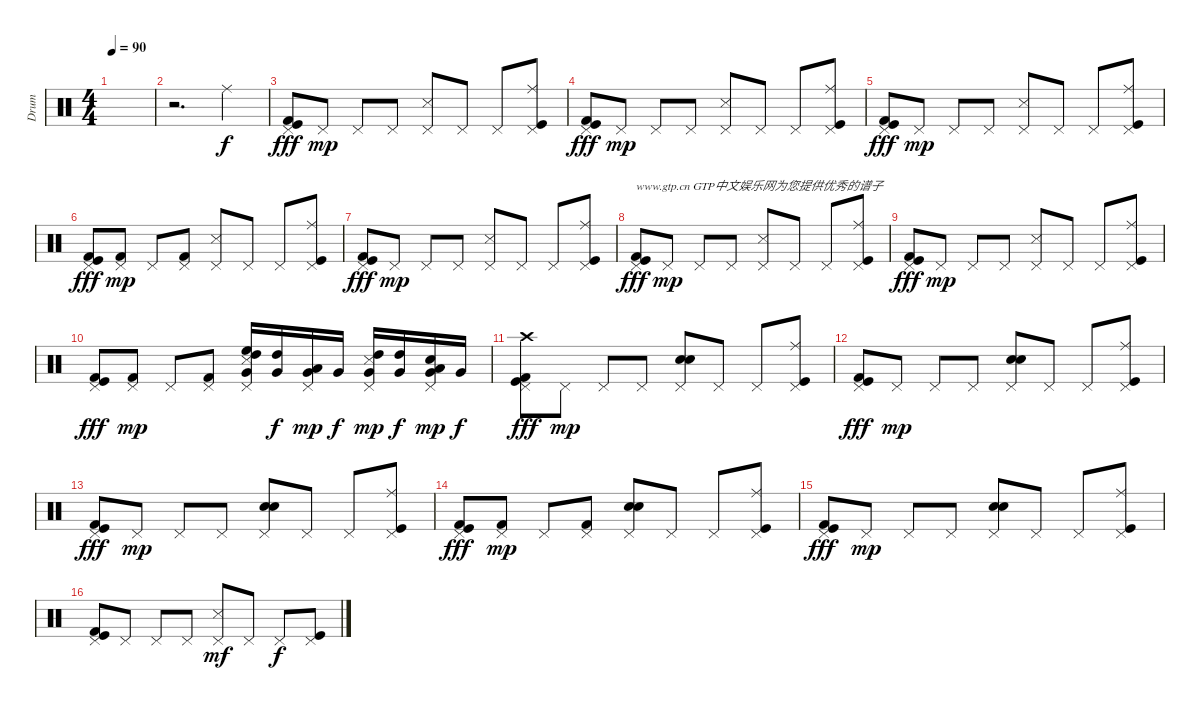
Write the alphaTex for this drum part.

\track ("Drum" "Drum") {instrument percussion}
\staff {score}
\articulation defaults
\ts (4 4)
\tempo 90
\clef neutral
\ks c
|
r.2{d} "Ride (middle)".4 |
("Kick (hit)" "Pedal Hi-Hat (hit)" "Kick (hit) 2").8{dy fff} "Pedal Hi-Hat (hit)".8{dy mp} "Pedal Hi-Hat (hit)".8 "Pedal Hi-Hat (hit)".8 ("Snare (side stick) 3" "Pedal Hi-Hat (hit)").8 "Pedal Hi-Hat (hit)".8 "Pedal Hi-Hat (hit)".8 ("Ride (middle)" "Pedal Hi-Hat (hit)" "Kick (hit)").8 |
("Kick (hit)" "Pedal Hi-Hat (hit)" "Kick (hit) 2").8{dy fff} "Pedal Hi-Hat (hit)".8{dy mp} "Pedal Hi-Hat (hit)".8 "Pedal Hi-Hat (hit)".8 ("Snare (side stick) 3" "Pedal Hi-Hat (hit)").8 "Pedal Hi-Hat (hit)".8 "Pedal Hi-Hat (hit)".8 ("Ride (middle)" "Pedal Hi-Hat (hit)" "Kick (hit)").8 |
("Kick (hit)" "Pedal Hi-Hat (hit)" "Kick (hit) 2").8{dy fff} "Pedal Hi-Hat (hit)".8{dy mp} "Pedal Hi-Hat (hit)".8 "Pedal Hi-Hat (hit)".8 ("Snare (side stick) 3" "Pedal Hi-Hat (hit)").8 "Pedal Hi-Hat (hit)".8 "Pedal Hi-Hat (hit)".8 ("Ride (middle)" "Pedal Hi-Hat (hit)" "Kick (hit)").8 |
("Kick (hit)" "Pedal Hi-Hat (hit)" "Kick (hit) 2").8{dy fff} ("Pedal Hi-Hat (hit)" "Kick (hit) 2").8{dy mp} "Pedal Hi-Hat (hit)".8 ("Pedal Hi-Hat (hit)" "Kick (hit) 2").8 ("Snare (side stick) 3" "Pedal Hi-Hat (hit)").8 "Pedal Hi-Hat (hit)".8 "Pedal Hi-Hat (hit)".8 ("Ride (middle)" "Pedal Hi-Hat (hit)" "Kick (hit)").8 |
("Kick (hit)" "Pedal Hi-Hat (hit)" "Kick (hit) 2").8{dy fff} "Pedal Hi-Hat (hit)".8{dy mp} "Pedal Hi-Hat (hit)".8 "Pedal Hi-Hat (hit)".8 ("Snare (side stick) 3" "Pedal Hi-Hat (hit)").8 "Pedal Hi-Hat (hit)".8 "Pedal Hi-Hat (hit)".8 ("Ride (middle)" "Pedal Hi-Hat (hit)" "Kick (hit)").8 |
("Kick (hit)" "Pedal Hi-Hat (hit)" "Kick (hit) 2").8{txt "www.gtp.cn GTP中文娱乐网为您提供优秀的谱子" dy fff} "Pedal Hi-Hat (hit)".8{dy mp} "Pedal Hi-Hat (hit)".8 "Pedal Hi-Hat (hit)".8 ("Snare (side stick) 3" "Pedal Hi-Hat (hit)").8 "Pedal Hi-Hat (hit)".8 "Pedal Hi-Hat (hit)".8 ("Ride (middle)" "Pedal Hi-Hat (hit)" "Kick (hit)").8 |
("Kick (hit)" "Pedal Hi-Hat (hit)" "Kick (hit) 2").8{dy fff} "Pedal Hi-Hat (hit)".8{dy mp} "Pedal Hi-Hat (hit)".8 "Pedal Hi-Hat (hit)".8 ("Snare (side stick) 3" "Pedal Hi-Hat (hit)").8 "Pedal Hi-Hat (hit)".8 "Pedal Hi-Hat (hit)".8 ("Ride (middle)" "Pedal Hi-Hat (hit)" "Kick (hit)").8 |
("Kick (hit)" "Pedal Hi-Hat (hit)" "Kick (hit) 2").8{dy fff} ("Pedal Hi-Hat (hit)" "Kick (hit) 2").8{dy mp} "Pedal Hi-Hat (hit)".8 ("Pedal Hi-Hat (hit)" "Kick (hit) 2").8 ("Snare (side stick) 3" "Very Low Tom (hit)" "High Tom (hit)" "High Floor Tom (hit)" "Pedal Hi-Hat (hit)").16 ("Very Low Tom (hit)" "High Tom (hit)").16{dy f} ("Very Low Tom (hit)" "Low Tom (hit)" "Pedal Hi-Hat (hit)").16{dy mp} "Very Low Tom (hit)".16{dy f} ("Snare (side stick) 3" "Very Low Tom (hit)" "High Tom (hit)" "Pedal Hi-Hat (hit)").16{dy mp} ("Very Low Tom (hit)" "High Tom (hit)").16{dy f} ("Very Low Tom (hit)" "Low Tom (hit)" "Pedal Hi-Hat (hit)" "Snare (hit)").16{dy mp} "Very Low Tom (hit)".16{dy f} |
("Crash high (hit)" "Kick (hit)" "Pedal Hi-Hat (hit)" "Kick (hit) 2").8{dy fff} "Pedal Hi-Hat (hit)".8{dy mp} "Pedal Hi-Hat (hit)".8 "Pedal Hi-Hat (hit)".8 ("Snare (hit) 2" "Electric Snare (hit)" "Pedal Hi-Hat (hit)").8 "Pedal Hi-Hat (hit)".8 "Pedal Hi-Hat (hit)".8 ("Ride (middle)" "Pedal Hi-Hat (hit)" "Kick (hit)").8 |
("Kick (hit)" "Pedal Hi-Hat (hit)" "Kick (hit) 2").8{dy fff} "Pedal Hi-Hat (hit)".8{dy mp} "Pedal Hi-Hat (hit)".8 "Pedal Hi-Hat (hit)".8 ("Snare (hit) 2" "Electric Snare (hit)" "Pedal Hi-Hat (hit)").8 "Pedal Hi-Hat (hit)".8 "Pedal Hi-Hat (hit)".8 ("Ride (middle)" "Pedal Hi-Hat (hit)" "Kick (hit)").8 |
("Kick (hit)" "Pedal Hi-Hat (hit)" "Kick (hit) 2").8{dy fff} "Pedal Hi-Hat (hit)".8{dy mp} "Pedal Hi-Hat (hit)".8 "Pedal Hi-Hat (hit)".8 ("Snare (hit) 2" "Electric Snare (hit)" "Pedal Hi-Hat (hit)").8 "Pedal Hi-Hat (hit)".8 "Pedal Hi-Hat (hit)".8 ("Ride (middle)" "Pedal Hi-Hat (hit)" "Kick (hit)").8 |
("Kick (hit)" "Pedal Hi-Hat (hit)" "Kick (hit) 2").8{dy fff} ("Pedal Hi-Hat (hit)" "Kick (hit) 2").8{dy mp} "Pedal Hi-Hat (hit)".8 ("Pedal Hi-Hat (hit)" "Kick (hit) 2").8 ("Snare (hit) 2" "Electric Snare (hit)" "Pedal Hi-Hat (hit)").8 "Pedal Hi-Hat (hit)".8 "Pedal Hi-Hat (hit)".8 ("Ride (middle)" "Pedal Hi-Hat (hit)" "Kick (hit)").8 |
("Kick (hit)" "Pedal Hi-Hat (hit)" "Kick (hit) 2").8{dy fff} "Pedal Hi-Hat (hit)".8{dy mp} "Pedal Hi-Hat (hit)".8 "Pedal Hi-Hat (hit)".8 ("Snare (hit) 2" "Electric Snare (hit)" "Pedal Hi-Hat (hit)").8 "Pedal Hi-Hat (hit)".8 "Pedal Hi-Hat (hit)".8 ("Ride (middle)" "Pedal Hi-Hat (hit)" "Kick (hit)").8 |
("Kick (hit)" "Pedal Hi-Hat (hit)" "Kick (hit) 2").8 "Pedal Hi-Hat (hit)".8 "Pedal Hi-Hat (hit)".8 "Pedal Hi-Hat (hit)".8 ("Snare (side stick) 3" "Pedal Hi-Hat (hit)").8{dy mf} "Pedal Hi-Hat (hit)".8 "Pedal Hi-Hat (hit)".8{dy f} ("Pedal Hi-Hat (hit)" "Kick (hit)").8
